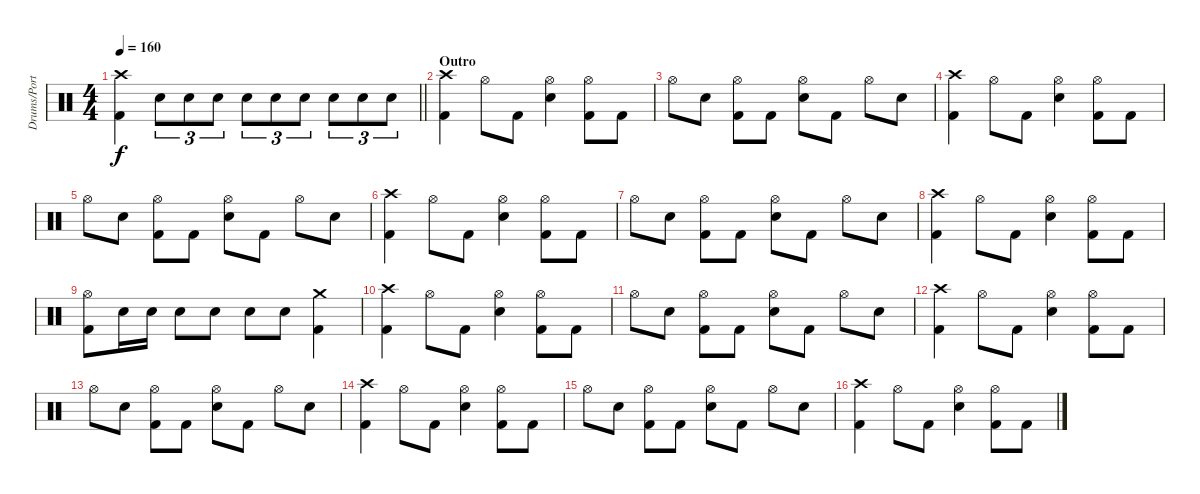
\track ("Drums/Portnoy" "Drums/Port") {instrument percussion}
\staff {score}
\articulation defaults
\ts (4 4)
\tempo 160
\clef neutral
\barLineRight lightlight
\ks c
("Crash high (hit)" "Kick (hit) 2").4{dy f} "Electric Snare (hit)".8{tu (3 2)} "Electric Snare (hit)".8{tu (3 2)} "Electric Snare (hit)".8{tu (3 2)} "Electric Snare (hit)".8{tu (3 2)} "Electric Snare (hit)".8{tu (3 2)} "Electric Snare (hit)".8{tu (3 2)} "Electric Snare (hit)".8{tu (3 2)} "Electric Snare (hit)".8{tu (3 2)} "Electric Snare (hit)".8{tu (3 2)} |
\section ("" "Outro")
("Crash high (hit)" "Kick (hit) 2").4 "Hi-Hat (open)".8 "Kick (hit) 2".8 ("Hi-Hat (open)" "Electric Snare (hit)").4 ("Hi-Hat (open)" "Kick (hit) 2").8 "Kick (hit) 2".8 |
"Hi-Hat (open)".8 "Electric Snare (hit)".8 ("Hi-Hat (open)" "Kick (hit) 2").8 "Kick (hit) 2".8 ("Hi-Hat (open)" "Electric Snare (hit)").8 "Kick (hit) 2".8 "Hi-Hat (open)".8 "Electric Snare (hit)".8 |
("Crash high (hit)" "Kick (hit) 2").4 "Hi-Hat (open)".8 "Kick (hit) 2".8 ("Hi-Hat (open)" "Electric Snare (hit)").4 ("Hi-Hat (open)" "Kick (hit) 2").8 "Kick (hit) 2".8 |
"Hi-Hat (open)".8 "Electric Snare (hit)".8 ("Hi-Hat (open)" "Kick (hit) 2").8 "Kick (hit) 2".8 ("Hi-Hat (open)" "Electric Snare (hit)").8 "Kick (hit) 2".8 "Hi-Hat (open)".8 "Electric Snare (hit)".8 |
("Crash high (hit)" "Kick (hit) 2").4 "Hi-Hat (open)".8 "Kick (hit) 2".8 ("Hi-Hat (open)" "Electric Snare (hit)").4 ("Hi-Hat (open)" "Kick (hit) 2").8 "Kick (hit) 2".8 |
"Hi-Hat (open)".8 "Electric Snare (hit)".8 ("Hi-Hat (open)" "Kick (hit) 2").8 "Kick (hit) 2".8 ("Hi-Hat (open)" "Electric Snare (hit)").8 "Kick (hit) 2".8 "Hi-Hat (open)".8 "Electric Snare (hit)".8 |
("Crash high (hit)" "Kick (hit) 2").4 "Hi-Hat (open)".8 "Kick (hit) 2".8 ("Hi-Hat (open)" "Electric Snare (hit)").4 ("Hi-Hat (open)" "Kick (hit) 2").8 "Kick (hit) 2".8 |
("Hi-Hat (open)" "Kick (hit) 2").8 "Electric Snare (hit)".16 "Electric Snare (hit)".16 "Electric Snare (hit)".8 "Electric Snare (hit)".8 "Electric Snare (hit)".8 "Electric Snare (hit)".8 ("Crash medium (hit)" "Kick (hit) 2").4 |
("Crash high (hit)" "Kick (hit) 2").4 "Hi-Hat (open)".8 "Kick (hit) 2".8 ("Hi-Hat (open)" "Electric Snare (hit)").4 ("Hi-Hat (open)" "Kick (hit) 2").8 "Kick (hit) 2".8 |
"Hi-Hat (open)".8 "Electric Snare (hit)".8 ("Hi-Hat (open)" "Kick (hit) 2").8 "Kick (hit) 2".8 ("Hi-Hat (open)" "Electric Snare (hit)").8 "Kick (hit) 2".8 "Hi-Hat (open)".8 "Electric Snare (hit)".8 |
("Crash high (hit)" "Kick (hit) 2").4 "Hi-Hat (open)".8 "Kick (hit) 2".8 ("Hi-Hat (open)" "Electric Snare (hit)").4 ("Hi-Hat (open)" "Kick (hit) 2").8 "Kick (hit) 2".8 |
"Hi-Hat (open)".8 "Electric Snare (hit)".8 ("Hi-Hat (open)" "Kick (hit) 2").8 "Kick (hit) 2".8 ("Hi-Hat (open)" "Electric Snare (hit)").8 "Kick (hit) 2".8 "Hi-Hat (open)".8 "Electric Snare (hit)".8 |
("Crash high (hit)" "Kick (hit) 2").4 "Hi-Hat (open)".8 "Kick (hit) 2".8 ("Hi-Hat (open)" "Electric Snare (hit)").4 ("Hi-Hat (open)" "Kick (hit) 2").8 "Kick (hit) 2".8 |
"Hi-Hat (open)".8 "Electric Snare (hit)".8 ("Hi-Hat (open)" "Kick (hit) 2").8 "Kick (hit) 2".8 ("Hi-Hat (open)" "Electric Snare (hit)").8 "Kick (hit) 2".8 "Hi-Hat (open)".8 "Electric Snare (hit)".8 |
("Crash high (hit)" "Kick (hit) 2").4 "Hi-Hat (open)".8 "Kick (hit) 2".8 ("Hi-Hat (open)" "Electric Snare (hit)").4 ("Hi-Hat (open)" "Kick (hit) 2").8 "Kick (hit) 2".8
